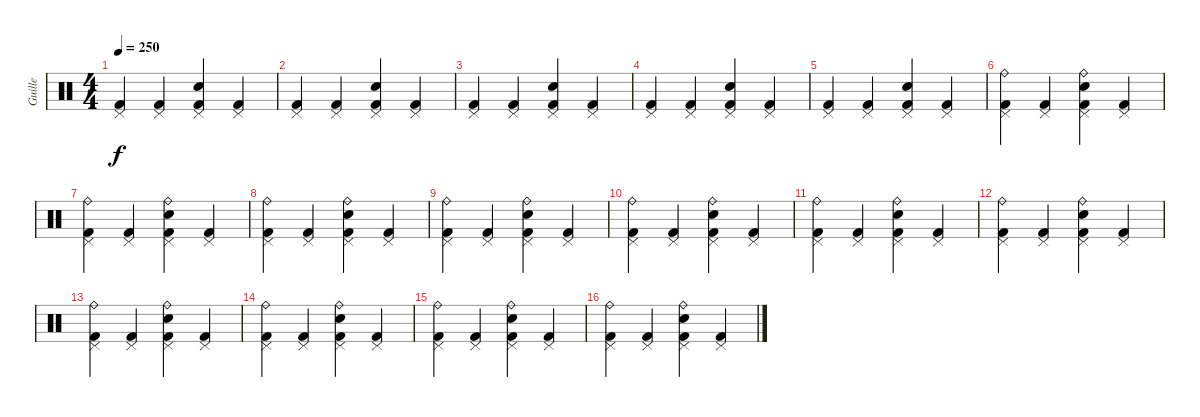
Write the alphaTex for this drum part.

\track ("Guille" "Guille") {instrument percussion}
\staff
\articulation defaults
\ts (4 4)
\tempo 250
\clef neutral
\ks c
("Kick (hit) 2" "Pedal Hi-Hat (hit)").4{dy f} ("Kick (hit) 2" "Pedal Hi-Hat (hit)").4 ("Kick (hit) 2" "Electric Snare (hit)" "Pedal Hi-Hat (hit)").4 ("Kick (hit) 2" "Pedal Hi-Hat (hit)").4 |
("Kick (hit) 2" "Pedal Hi-Hat (hit)").4 ("Kick (hit) 2" "Pedal Hi-Hat (hit)").4 ("Kick (hit) 2" "Electric Snare (hit)" "Pedal Hi-Hat (hit)").4 ("Kick (hit) 2" "Pedal Hi-Hat (hit)").4 |
("Kick (hit) 2" "Pedal Hi-Hat (hit)").4 ("Kick (hit) 2" "Pedal Hi-Hat (hit)").4 ("Kick (hit) 2" "Electric Snare (hit)" "Pedal Hi-Hat (hit)").4 ("Kick (hit) 2" "Pedal Hi-Hat (hit)").4 |
("Kick (hit) 2" "Pedal Hi-Hat (hit)").4 ("Kick (hit) 2" "Pedal Hi-Hat (hit)").4 ("Kick (hit) 2" "Electric Snare (hit)" "Pedal Hi-Hat (hit)").4 ("Kick (hit) 2" "Pedal Hi-Hat (hit)").4 |
("Kick (hit) 2" "Pedal Hi-Hat (hit)").4 ("Kick (hit) 2" "Pedal Hi-Hat (hit)").4 ("Kick (hit) 2" "Electric Snare (hit)" "Pedal Hi-Hat (hit)").4 ("Kick (hit) 2" "Pedal Hi-Hat (hit)").4 |
("Kick (hit) 2" "Pedal Hi-Hat (hit)" "Ride (bell)").4 ("Kick (hit) 2" "Pedal Hi-Hat (hit)").4 ("Kick (hit) 2" "Electric Snare (hit)" "Pedal Hi-Hat (hit)" "Ride (bell)").4 ("Kick (hit) 2" "Pedal Hi-Hat (hit)").4 |
("Kick (hit) 2" "Pedal Hi-Hat (hit)" "Ride (bell)").4 ("Kick (hit) 2" "Pedal Hi-Hat (hit)").4 ("Kick (hit) 2" "Electric Snare (hit)" "Pedal Hi-Hat (hit)" "Ride (bell)").4 ("Kick (hit) 2" "Pedal Hi-Hat (hit)").4 |
("Kick (hit) 2" "Pedal Hi-Hat (hit)" "Ride (bell)").4 ("Kick (hit) 2" "Pedal Hi-Hat (hit)").4 ("Kick (hit) 2" "Electric Snare (hit)" "Pedal Hi-Hat (hit)" "Ride (bell)").4 ("Kick (hit) 2" "Pedal Hi-Hat (hit)").4 |
("Kick (hit) 2" "Pedal Hi-Hat (hit)" "Ride (bell)").4 ("Kick (hit) 2" "Pedal Hi-Hat (hit)").4 ("Kick (hit) 2" "Electric Snare (hit)" "Pedal Hi-Hat (hit)" "Ride (bell)").4 ("Kick (hit) 2" "Pedal Hi-Hat (hit)").4 |
("Kick (hit) 2" "Pedal Hi-Hat (hit)" "Ride (bell)").4 ("Kick (hit) 2" "Pedal Hi-Hat (hit)").4 ("Kick (hit) 2" "Electric Snare (hit)" "Pedal Hi-Hat (hit)" "Ride (bell)").4 ("Kick (hit) 2" "Pedal Hi-Hat (hit)").4 |
("Kick (hit) 2" "Pedal Hi-Hat (hit)" "Ride (bell)").4 ("Kick (hit) 2" "Pedal Hi-Hat (hit)").4 ("Kick (hit) 2" "Electric Snare (hit)" "Pedal Hi-Hat (hit)" "Ride (bell)").4 ("Kick (hit) 2" "Pedal Hi-Hat (hit)").4 |
("Kick (hit) 2" "Pedal Hi-Hat (hit)" "Ride (bell)").4 ("Kick (hit) 2" "Pedal Hi-Hat (hit)").4 ("Kick (hit) 2" "Electric Snare (hit)" "Pedal Hi-Hat (hit)" "Ride (bell)").4 ("Kick (hit) 2" "Pedal Hi-Hat (hit)").4 |
("Kick (hit) 2" "Pedal Hi-Hat (hit)" "Ride (bell)").4 ("Kick (hit) 2" "Pedal Hi-Hat (hit)").4 ("Kick (hit) 2" "Electric Snare (hit)" "Pedal Hi-Hat (hit)" "Ride (bell)").4 ("Kick (hit) 2" "Pedal Hi-Hat (hit)").4 |
("Kick (hit) 2" "Pedal Hi-Hat (hit)" "Ride (bell)").4 ("Kick (hit) 2" "Pedal Hi-Hat (hit)").4 ("Kick (hit) 2" "Electric Snare (hit)" "Pedal Hi-Hat (hit)" "Ride (bell)").4 ("Kick (hit) 2" "Pedal Hi-Hat (hit)").4 |
("Kick (hit) 2" "Pedal Hi-Hat (hit)" "Ride (bell)").4 ("Kick (hit) 2" "Pedal Hi-Hat (hit)").4 ("Kick (hit) 2" "Electric Snare (hit)" "Pedal Hi-Hat (hit)" "Ride (bell)").4 ("Kick (hit) 2" "Pedal Hi-Hat (hit)").4 |
("Kick (hit) 2" "Pedal Hi-Hat (hit)" "Ride (bell)").4 ("Kick (hit) 2" "Pedal Hi-Hat (hit)").4 ("Kick (hit) 2" "Electric Snare (hit)" "Pedal Hi-Hat (hit)" "Ride (bell)").4 ("Kick (hit) 2" "Pedal Hi-Hat (hit)").4
